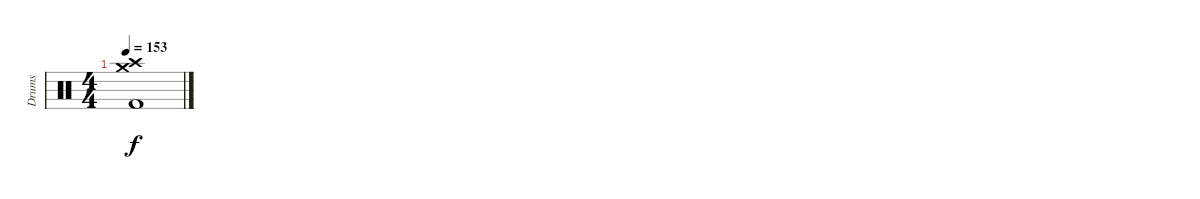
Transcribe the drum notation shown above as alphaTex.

\track ("Drums" "Drums") {instrument percussion}
\staff {score}
\articulation defaults
\ts (4 4)
\tempo 153
\clef neutral
\ks c
("Crash medium (hit)" "Crash high (hit)" "Kick (hit) 2").1{dy f}
